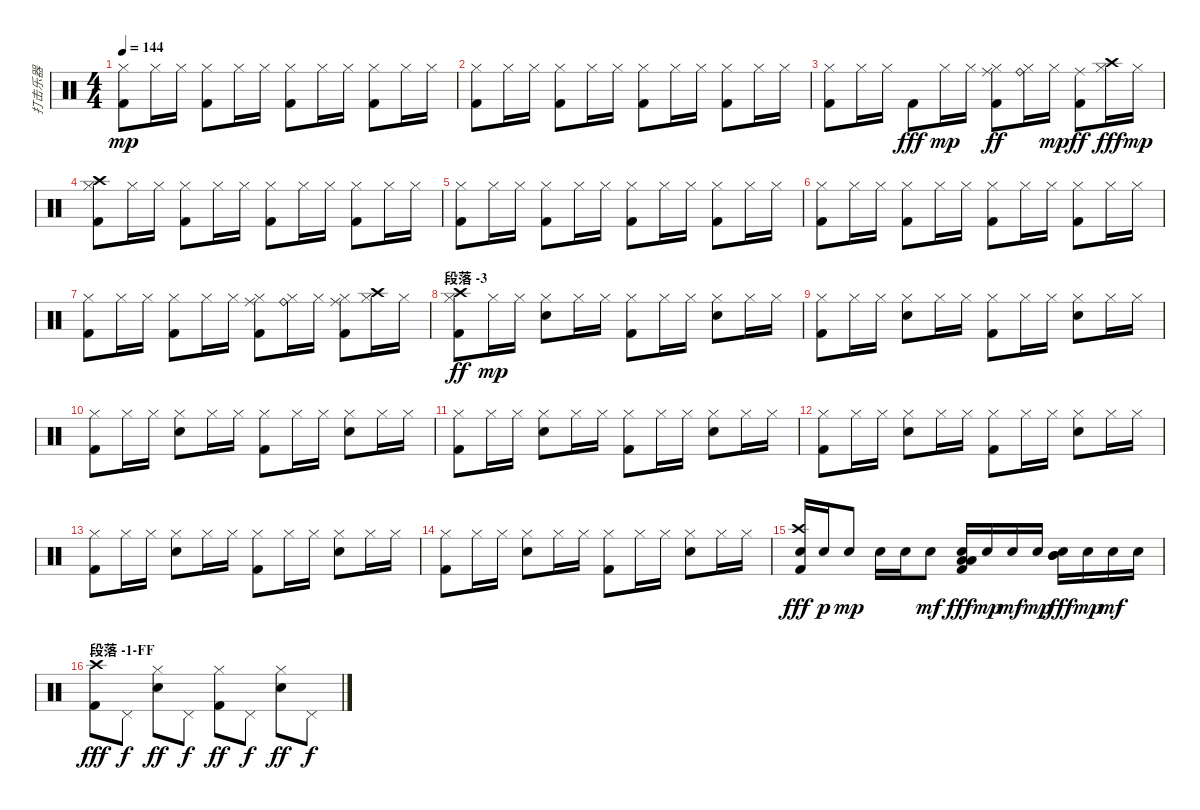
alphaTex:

\track ("打击乐器" "打击乐器") {instrument percussion}
\staff {score}
\articulation defaults
\ts (4 4)
\tempo 144
\clef neutral
\ks c
("Kick (hit) 2" "Hi-Hat (closed)").8{dy mp} "Hi-Hat (closed)".16 "Hi-Hat (closed)".16 ("Kick (hit) 2" "Hi-Hat (closed)").8 "Hi-Hat (closed)".16 "Hi-Hat (closed)".16 ("Kick (hit) 2" "Hi-Hat (closed)").8 "Hi-Hat (closed)".16 "Hi-Hat (closed)".16 ("Kick (hit) 2" "Hi-Hat (closed)").8 "Hi-Hat (closed)".16 "Hi-Hat (closed)".16 |
("Kick (hit) 2" "Hi-Hat (closed)").8 "Hi-Hat (closed)".16 "Hi-Hat (closed)".16 ("Kick (hit) 2" "Hi-Hat (closed)").8 "Hi-Hat (closed)".16 "Hi-Hat (closed)".16 ("Kick (hit) 2" "Hi-Hat (closed)").8 "Hi-Hat (closed)".16 "Hi-Hat (closed)".16 ("Kick (hit) 2" "Hi-Hat (closed)").8 "Hi-Hat (closed)".16 "Hi-Hat (closed)".16 |
("Kick (hit) 2" "Hi-Hat (closed)").8 "Hi-Hat (closed)".16 "Hi-Hat (closed)".16 "Kick (hit) 2".8{dy fff} "Hi-Hat (closed)".16{dy mp} "Hi-Hat (closed)".16 ("Kick (hit) 2" "Hi-Hat (closed)" "Ride (middle)").8{dy ff} ("Hi-Hat (closed)" "Ride (bell)").16 "Hi-Hat (closed)".16{dy mp} ("Kick (hit) 2" "Ride (middle)").8{dy ff} ("Hi-Hat (closed)" "Crash high (hit)").16{dy fff} "Hi-Hat (closed)".16{dy mp} |
("Kick (hit) 2" "Hi-Hat (closed)" "Crash high (hit)").8 "Hi-Hat (closed)".16 "Hi-Hat (closed)".16 ("Kick (hit) 2" "Hi-Hat (closed)").8 "Hi-Hat (closed)".16 "Hi-Hat (closed)".16 ("Kick (hit) 2" "Hi-Hat (closed)").8 "Hi-Hat (closed)".16 "Hi-Hat (closed)".16 ("Kick (hit) 2" "Hi-Hat (closed)").8 "Hi-Hat (closed)".16 "Hi-Hat (closed)".16 |
("Kick (hit) 2" "Hi-Hat (closed)").8 "Hi-Hat (closed)".16 "Hi-Hat (closed)".16 ("Kick (hit) 2" "Hi-Hat (closed)").8 "Hi-Hat (closed)".16 "Hi-Hat (closed)".16 ("Kick (hit) 2" "Hi-Hat (closed)").8 "Hi-Hat (closed)".16 "Hi-Hat (closed)".16 ("Kick (hit) 2" "Hi-Hat (closed)").8 "Hi-Hat (closed)".16 "Hi-Hat (closed)".16 |
("Kick (hit) 2" "Hi-Hat (closed)").8 "Hi-Hat (closed)".16 "Hi-Hat (closed)".16 ("Kick (hit) 2" "Hi-Hat (closed)").8 "Hi-Hat (closed)".16 "Hi-Hat (closed)".16 ("Kick (hit) 2" "Hi-Hat (closed)").8 "Hi-Hat (closed)".16 "Hi-Hat (closed)".16 ("Kick (hit) 2" "Hi-Hat (closed)").8 "Hi-Hat (closed)".16 "Hi-Hat (closed)".16 |
("Kick (hit) 2" "Hi-Hat (closed)").8 "Hi-Hat (closed)".16 "Hi-Hat (closed)".16 ("Kick (hit) 2" "Hi-Hat (closed)").8 "Hi-Hat (closed)".16 "Hi-Hat (closed)".16 ("Kick (hit) 2" "Hi-Hat (closed)" "Ride (middle)").8 ("Hi-Hat (closed)" "Ride (bell)").16 "Hi-Hat (closed)".16 ("Kick (hit) 2" "Hi-Hat (closed)" "Ride (middle)").8 ("Hi-Hat (closed)" "Crash high (hit)").16 "Hi-Hat (closed)".16 |
\section ("" "段落 -3")
("Kick (hit) 2" "Hi-Hat (closed)" "Crash high (hit)").8{dy ff} "Hi-Hat (closed)".16{dy mp} "Hi-Hat (closed)".16 ("Snare (hit) 2" "Hi-Hat (closed)").8 "Hi-Hat (closed)".16 "Hi-Hat (closed)".16 ("Kick (hit) 2" "Hi-Hat (closed)").8 "Hi-Hat (closed)".16 "Hi-Hat (closed)".16 ("Snare (hit) 2" "Hi-Hat (closed)").8 "Hi-Hat (closed)".16 "Hi-Hat (closed)".16 |
("Kick (hit) 2" "Hi-Hat (closed)").8 "Hi-Hat (closed)".16 "Hi-Hat (closed)".16 ("Snare (hit) 2" "Hi-Hat (closed)").8 "Hi-Hat (closed)".16 "Hi-Hat (closed)".16 ("Kick (hit) 2" "Hi-Hat (closed)").8 "Hi-Hat (closed)".16 "Hi-Hat (closed)".16 ("Snare (hit) 2" "Hi-Hat (closed)").8 "Hi-Hat (closed)".16 "Hi-Hat (closed)".16 |
("Kick (hit) 2" "Hi-Hat (closed)").8 "Hi-Hat (closed)".16 "Hi-Hat (closed)".16 ("Snare (hit) 2" "Hi-Hat (closed)").8 "Hi-Hat (closed)".16 "Hi-Hat (closed)".16 ("Kick (hit) 2" "Hi-Hat (closed)").8 "Hi-Hat (closed)".16 "Hi-Hat (closed)".16 ("Snare (hit) 2" "Hi-Hat (closed)").8 "Hi-Hat (closed)".16 "Hi-Hat (closed)".16 |
("Kick (hit) 2" "Hi-Hat (closed)").8 "Hi-Hat (closed)".16 "Hi-Hat (closed)".16 ("Snare (hit) 2" "Hi-Hat (closed)").8 "Hi-Hat (closed)".16 "Hi-Hat (closed)".16 ("Kick (hit) 2" "Hi-Hat (closed)").8 "Hi-Hat (closed)".16 "Hi-Hat (closed)".16 ("Snare (hit) 2" "Hi-Hat (closed)").8 "Hi-Hat (closed)".16 "Hi-Hat (closed)".16 |
("Kick (hit) 2" "Hi-Hat (closed)").8 "Hi-Hat (closed)".16 "Hi-Hat (closed)".16 ("Snare (hit) 2" "Hi-Hat (closed)").8 "Hi-Hat (closed)".16 "Hi-Hat (closed)".16 ("Kick (hit) 2" "Hi-Hat (closed)").8 "Hi-Hat (closed)".16 "Hi-Hat (closed)".16 ("Snare (hit) 2" "Hi-Hat (closed)").8 "Hi-Hat (closed)".16 "Hi-Hat (closed)".16 |
("Kick (hit) 2" "Hi-Hat (closed)").8 "Hi-Hat (closed)".16 "Hi-Hat (closed)".16 ("Snare (hit) 2" "Hi-Hat (closed)").8 "Hi-Hat (closed)".16 "Hi-Hat (closed)".16 ("Kick (hit) 2" "Hi-Hat (closed)").8 "Hi-Hat (closed)".16 "Hi-Hat (closed)".16 ("Snare (hit) 2" "Hi-Hat (closed)").8 "Hi-Hat (closed)".16 "Hi-Hat (closed)".16 |
("Kick (hit) 2" "Hi-Hat (closed)").8 "Hi-Hat (closed)".16 "Hi-Hat (closed)".16 ("Snare (hit) 2" "Hi-Hat (closed)").8 "Hi-Hat (closed)".16 "Hi-Hat (closed)".16 ("Kick (hit) 2" "Hi-Hat (closed)").8 "Hi-Hat (closed)".16 "Hi-Hat (closed)".16 ("Snare (hit) 2" "Hi-Hat (closed)").8 "Hi-Hat (closed)".16 "Hi-Hat (closed)".16 |
("Kick (hit) 2" "Snare (hit) 2" "Crash high (hit)").16{dy fff} "Snare (hit) 2".16{dy p} "Snare (hit) 2".8{dy mp} "Snare (hit) 2".16 "Snare (hit) 2".16 "Snare (hit) 2".8{dy mf} ("Kick (hit) 2" "Snare (hit) 2" "Low Tom (hit)" "Low Tom (hit)").16{dy fff} "Snare (hit) 2".16{dy mp} "Snare (hit) 2".16{dy mf} "Snare (hit) 2".16{dy mp} ("Snare (hit) 2" "Mid Tom (hit)" "Mid Tom (hit)").16{dy fff} "Snare (hit) 2".16{dy mp} "Snare (hit) 2".16{dy mf} "Snare (hit) 2".16 |
\section ("" "段落 -1-FF")
("Kick (hit) 2" "Crash high (hit)").8{dy fff} "Pedal Hi-Hat (hit)".8{dy f} ("Snare (hit) 2" "Hi-Hat (closed)").8{dy ff} "Pedal Hi-Hat (hit)".8{dy f} ("Kick (hit) 2" "Hi-Hat (closed)").8{dy ff} "Pedal Hi-Hat (hit)".8{dy f} ("Snare (hit) 2" "Hi-Hat (closed)").8{dy ff} "Pedal Hi-Hat (hit)".8{dy f}
